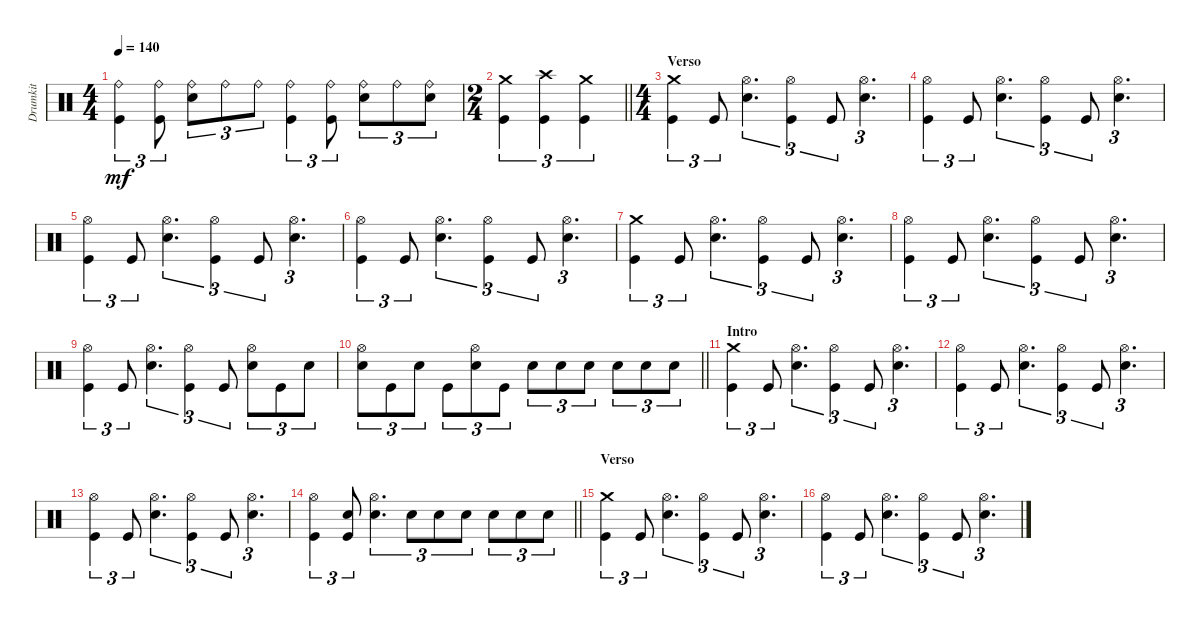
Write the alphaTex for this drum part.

\track ("Drumkit" "Drumkit") {instrument percussion}
\staff {score}
\articulation defaults
\ts (4 4)
\tempo 140
\clef neutral
\ks c
("Kick (hit)" "Ride (bell)").4{tu (3 2) dy mf} ("Ride (bell)" "Kick (hit)").8{tu (3 2)} ("Ride (bell)" "Snare (hit) 2").8{tu (3 2)} "Ride (bell)".8{tu (3 2)} "Ride (bell)".8{tu (3 2)} ("Ride (bell)" "Kick (hit)").4{tu (3 2)} ("Ride (bell)" "Kick (hit)").8{tu (3 2)} ("Ride (bell)" "Snare (hit) 2").8{tu (3 2)} "Ride (bell)".8{tu (3 2)} ("Ride (bell)" "Snare (hit) 2").8{tu (3 2)} |
\ts (2 4)
\barLineRight lightlight
("Crash medium (hit)" "Kick (hit)").4{tu (3 2)} ("Crash high (hit)" "Kick (hit)").4{tu (3 2)} ("Crash medium (hit)" "Kick (hit)").4{tu (3 2)} |
\ts (4 4)
\section ("" "Verso")
("Crash medium (hit)" "Kick (hit)").4{tu (3 2)} "Kick (hit)".8{tu (3 2)} ("Snare (hit) 2" "Hi-Hat (open)").4{d tu (3 2)} ("Kick (hit)" "Hi-Hat (open)").4{tu (3 2)} "Kick (hit)".8{tu (3 2)} ("Snare (hit) 2" "Hi-Hat (open)").4{d tu (3 2)} |
("Kick (hit)" "Hi-Hat (open)").4{tu (3 2)} "Kick (hit)".8{tu (3 2)} ("Snare (hit) 2" "Hi-Hat (open)").4{d tu (3 2)} ("Kick (hit)" "Hi-Hat (open)").4{tu (3 2)} "Kick (hit)".8{tu (3 2)} ("Snare (hit) 2" "Hi-Hat (open)").4{d tu (3 2)} |
("Kick (hit)" "Hi-Hat (open)").4{tu (3 2)} "Kick (hit)".8{tu (3 2)} ("Snare (hit) 2" "Hi-Hat (open)").4{d tu (3 2)} ("Kick (hit)" "Hi-Hat (open)").4{tu (3 2)} "Kick (hit)".8{tu (3 2)} ("Snare (hit) 2" "Hi-Hat (open)").4{d tu (3 2)} |
("Kick (hit)" "Hi-Hat (open)").4{tu (3 2)} "Kick (hit)".8{tu (3 2)} ("Snare (hit) 2" "Hi-Hat (open)").4{d tu (3 2)} ("Kick (hit)" "Hi-Hat (open)").4{tu (3 2)} "Kick (hit)".8{tu (3 2)} ("Snare (hit) 2" "Hi-Hat (open)").4{d tu (3 2)} |
("Crash medium (hit)" "Kick (hit)").4{tu (3 2)} "Kick (hit)".8{tu (3 2)} ("Snare (hit) 2" "Hi-Hat (open)").4{d tu (3 2)} ("Kick (hit)" "Hi-Hat (open)").4{tu (3 2)} "Kick (hit)".8{tu (3 2)} ("Snare (hit) 2" "Hi-Hat (open)").4{d tu (3 2)} |
("Kick (hit)" "Hi-Hat (open)").4{tu (3 2)} "Kick (hit)".8{tu (3 2)} ("Snare (hit) 2" "Hi-Hat (open)").4{d tu (3 2)} ("Kick (hit)" "Hi-Hat (open)").4{tu (3 2)} "Kick (hit)".8{tu (3 2)} ("Snare (hit) 2" "Hi-Hat (open)").4{d tu (3 2)} |
("Kick (hit)" "Hi-Hat (open)").4{tu (3 2)} "Kick (hit)".8{tu (3 2)} ("Snare (hit) 2" "Hi-Hat (open)").4{d tu (3 2)} ("Kick (hit)" "Hi-Hat (open)").4{tu (3 2)} "Kick (hit)".8{tu (3 2)} ("Snare (hit) 2" "Hi-Hat (open)").8{tu (3 2)} "Kick (hit)".8{tu (3 2)} "Snare (hit) 2".8{tu (3 2)} |
\barLineRight lightlight
("Snare (hit) 2" "Hi-Hat (open)").8{tu (3 2)} "Kick (hit)".8{tu (3 2)} "Snare (hit) 2".8{tu (3 2)} "Kick (hit)".8{tu (3 2)} ("Snare (hit) 2" "Hi-Hat (open)").8{tu (3 2)} "Kick (hit)".8{tu (3 2)} "Snare (hit) 2".8{tu (3 2)} "Snare (hit) 2".8{tu (3 2)} "Snare (hit) 2".8{tu (3 2)} "Snare (hit) 2".8{tu (3 2)} "Snare (hit) 2".8{tu (3 2)} "Snare (hit) 2".8{tu (3 2)} |
\section ("" "Intro")
("Crash medium (hit)" "Kick (hit)").4{tu (3 2)} "Kick (hit)".8{tu (3 2)} ("Snare (hit) 2" "Hi-Hat (open)").4{d tu (3 2)} ("Kick (hit)" "Hi-Hat (open)").4{tu (3 2)} "Kick (hit)".8{tu (3 2)} ("Snare (hit) 2" "Hi-Hat (open)").4{d tu (3 2)} |
("Kick (hit)" "Hi-Hat (open)").4{tu (3 2)} "Kick (hit)".8{tu (3 2)} ("Snare (hit) 2" "Hi-Hat (open)").4{d tu (3 2)} ("Kick (hit)" "Hi-Hat (open)").4{tu (3 2)} "Kick (hit)".8{tu (3 2)} ("Snare (hit) 2" "Hi-Hat (open)").4{d tu (3 2)} |
("Kick (hit)" "Hi-Hat (open)").4{tu (3 2)} "Kick (hit)".8{tu (3 2)} ("Snare (hit) 2" "Hi-Hat (open)").4{d tu (3 2)} ("Kick (hit)" "Hi-Hat (open)").4{tu (3 2)} "Kick (hit)".8{tu (3 2)} ("Snare (hit) 2" "Hi-Hat (open)").4{d tu (3 2)} |
\barLineRight lightlight
("Kick (hit)" "Hi-Hat (open)").4{tu (3 2)} ("Kick (hit)" "Snare (hit) 2").8{tu (3 2)} ("Snare (hit) 2" "Hi-Hat (open)").4{d tu (3 2)} "Snare (hit) 2".8{tu (3 2)} "Snare (hit) 2".8{tu (3 2)} "Snare (hit) 2".8{tu (3 2)} "Snare (hit) 2".8{tu (3 2)} "Snare (hit) 2".8{tu (3 2)} "Snare (hit) 2".8{tu (3 2)} |
\section ("" "Verso")
("Crash medium (hit)" "Kick (hit)").4{tu (3 2)} "Kick (hit)".8{tu (3 2)} ("Snare (hit) 2" "Hi-Hat (open)").4{d tu (3 2)} ("Kick (hit)" "Hi-Hat (open)").4{tu (3 2)} "Kick (hit)".8{tu (3 2)} ("Snare (hit) 2" "Hi-Hat (open)").4{d tu (3 2)} |
("Kick (hit)" "Hi-Hat (open)").4{tu (3 2)} "Kick (hit)".8{tu (3 2)} ("Snare (hit) 2" "Hi-Hat (open)").4{d tu (3 2)} ("Kick (hit)" "Hi-Hat (open)").4{tu (3 2)} "Kick (hit)".8{tu (3 2)} ("Snare (hit) 2" "Hi-Hat (open)").4{d tu (3 2)}
